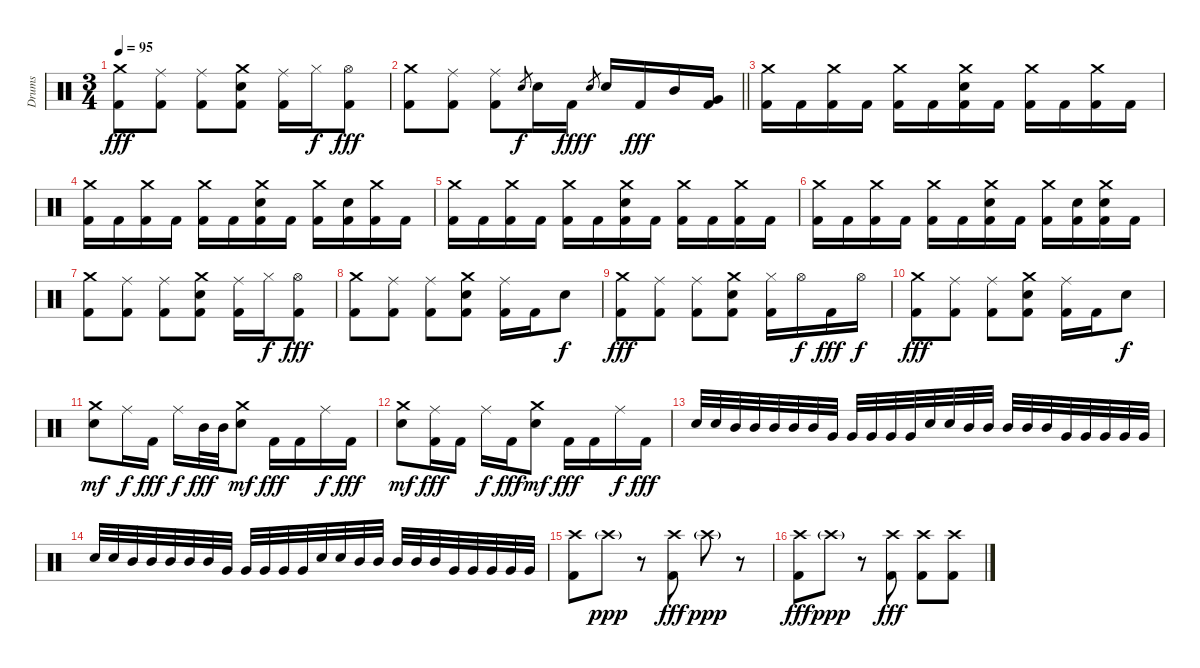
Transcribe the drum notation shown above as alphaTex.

\track ("Drums" "Drums") {instrument percussion}
\staff {score}
\articulation defaults
\ts (3 4)
\tempo 95
\clef neutral
\ks c
("Crash medium (hit)" "Kick (hit) 2").8{dy fff} ("Ride (middle)" "Kick (hit) 2").8 ("Ride (middle)" "Kick (hit) 2").8 ("Crash medium (hit)" "Snare (hit) 2" "Kick (hit) 2").8 ("Ride (middle)" "Kick (hit) 2").16 "Hi-Hat (closed)".16{dy f} ("Hi-Hat (open)" "Kick (hit) 2").8{dy fff} |
\barLineRight lightlight
("Crash medium (hit)" "Kick (hit) 2").8 ("Ride (middle)" "Kick (hit) 2").8 ("Ride (middle)" "Kick (hit) 2").8 "Snare (hit) 2".8{gr dy f} "Snare (hit) 2".16 "Kick (hit) 2".16{dy fff} "Snare (hit) 2".8{gr dy f} "Snare (hit) 2".16 "Kick (hit) 2".16{dy fff} "Mid Tom (hit)".16 ("Very Low Tom (hit)" "Kick (hit) 2").16 |
("Crash medium (hit)" "Kick (hit) 2").16 "Kick (hit) 2".16 ("Crash medium (hit)" "Kick (hit) 2").16 "Kick (hit) 2".16 ("Crash medium (hit)" "Kick (hit) 2").16 "Kick (hit) 2".16 ("Crash medium (hit)" "Snare (hit) 2" "Kick (hit) 2").16 "Kick (hit) 2".16 ("Crash medium (hit)" "Kick (hit) 2").16 "Kick (hit) 2".16 ("Crash medium (hit)" "Kick (hit) 2").16 "Kick (hit) 2".16 |
("Crash medium (hit)" "Kick (hit) 2").16 "Kick (hit) 2".16 ("Crash medium (hit)" "Kick (hit) 2").16 "Kick (hit) 2".16 ("Crash medium (hit)" "Kick (hit) 2").16 "Kick (hit) 2".16 ("Crash medium (hit)" "Snare (hit) 2" "Kick (hit) 2").16 "Kick (hit) 2".16 ("Crash medium (hit)" "Kick (hit) 2").16 ("Snare (hit) 2" "Kick (hit) 2").16 ("Crash medium (hit)" "Kick (hit) 2").16 "Kick (hit) 2".16 |
("Crash medium (hit)" "Kick (hit) 2").16 "Kick (hit) 2".16 ("Crash medium (hit)" "Kick (hit) 2").16 "Kick (hit) 2".16 ("Crash medium (hit)" "Kick (hit) 2").16 "Kick (hit) 2".16 ("Crash medium (hit)" "Snare (hit) 2" "Kick (hit) 2").16 "Kick (hit) 2".16 ("Crash medium (hit)" "Kick (hit) 2").16 "Kick (hit) 2".16 ("Crash medium (hit)" "Kick (hit) 2").16 "Kick (hit) 2".16 |
("Crash medium (hit)" "Kick (hit) 2").16 "Kick (hit) 2".16 ("Crash medium (hit)" "Kick (hit) 2").16 "Kick (hit) 2".16 ("Crash medium (hit)" "Kick (hit) 2").16 "Kick (hit) 2".16 ("Crash medium (hit)" "Snare (hit) 2" "Kick (hit) 2").16 "Kick (hit) 2".16 ("Crash medium (hit)" "Kick (hit) 2").16 ("Snare (hit) 2" "Kick (hit) 2").16 ("Crash medium (hit)" "Snare (hit) 2" "Kick (hit) 2").16 "Kick (hit) 2".16 |
("Crash medium (hit)" "Kick (hit) 2").8 ("Ride (middle)" "Kick (hit) 2").8 ("Ride (middle)" "Kick (hit) 2").8 ("Crash medium (hit)" "Snare (hit) 2" "Kick (hit) 2").8 ("Ride (middle)" "Kick (hit) 2").16 "Hi-Hat (closed)".16{dy f} ("Hi-Hat (open)" "Kick (hit) 2").8{dy fff} |
("Crash medium (hit)" "Kick (hit) 2").8 ("Ride (middle)" "Kick (hit) 2").8 ("Ride (middle)" "Kick (hit) 2").8 ("Crash medium (hit)" "Snare (hit) 2" "Kick (hit) 2").8 ("Ride (middle)" "Kick (hit) 2").16 "Kick (hit) 2".16 "Snare (hit) 2".8{dy f} |
("Crash medium (hit)" "Kick (hit) 2").8{dy fff} ("Ride (middle)" "Kick (hit) 2").8 ("Ride (middle)" "Kick (hit) 2").8 ("Crash medium (hit)" "Snare (hit) 2" "Kick (hit) 2").8 ("Hi-Hat (closed)" "Kick (hit) 2").16 "Hi-Hat (open)".16{dy f} "Kick (hit) 2".16{dy fff} "Hi-Hat (open)".16{dy f} |
("Crash medium (hit)" "Kick (hit) 2").8{dy fff} ("Ride (middle)" "Kick (hit) 2").8 ("Ride (middle)" "Kick (hit) 2").8 ("Crash medium (hit)" "Snare (hit) 2" "Kick (hit) 2").8 ("Ride (middle)" "Kick (hit) 2").16 "Kick (hit) 2".16 "Snare (hit) 2".8{dy f} |
("Crash medium (hit)" "Snare (hit) 2").8{dy mf} "Ride (middle)".16{dy f} "Kick (hit) 2".16{dy fff} "Ride (middle)".16{dy f} "Mid Tom (hit)".32{dy fff} "Mid Tom (hit)".32 ("Crash medium (hit)" "Snare (hit) 2").8{dy mf} "Kick (hit) 2".16{dy fff} "Kick (hit) 2".16 "Ride (middle)".16{dy f} "Kick (hit) 2".16{dy fff} |
("Crash medium (hit)" "Snare (hit) 2").8{dy mf} ("Ride (middle)" "Kick (hit) 2").16{dy fff} "Kick (hit) 2".16 "Ride (middle)".16{dy f} "Kick (hit) 2".16{dy fff} ("Crash medium (hit)" "Snare (hit) 2").8{dy mf} "Kick (hit) 2".16{dy fff} "Kick (hit) 2".16 "Ride (middle)".16{dy f} "Kick (hit) 2".16{dy fff} |
"Snare (hit) 2".32 "Snare (hit) 2".32 "Mid Tom (hit)".32 "Mid Tom (hit)".32 "Mid Tom (hit)".32 "Mid Tom (hit)".32 "Mid Tom (hit)".32 "Very Low Tom (hit)".32 "Very Low Tom (hit)".32 "Very Low Tom (hit)".32 "Very Low Tom (hit)".32 "Very Low Tom (hit)".32 "Snare (hit) 2".32 "Snare (hit) 2".32 "Mid Tom (hit)".32 "Mid Tom (hit)".32 "Mid Tom (hit)".32 "Mid Tom (hit)".32 "Mid Tom (hit)".32 "Very Low Tom (hit)".32 "Very Low Tom (hit)".32 "Very Low Tom (hit)".32 "Very Low Tom (hit)".32 "Very Low Tom (hit)".32 |
"Snare (hit) 2".32 "Snare (hit) 2".32 "Mid Tom (hit)".32 "Mid Tom (hit)".32 "Mid Tom (hit)".32 "Mid Tom (hit)".32 "Mid Tom (hit)".32 "Very Low Tom (hit)".32 "Very Low Tom (hit)".32 "Very Low Tom (hit)".32 "Very Low Tom (hit)".32 "Very Low Tom (hit)".32 "Snare (hit) 2".32 "Snare (hit) 2".32 "Mid Tom (hit)".32 "Mid Tom (hit)".32 "Mid Tom (hit)".32 "Mid Tom (hit)".32 "Mid Tom (hit)".32 "Very Low Tom (hit)".32 "Very Low Tom (hit)".32 "Very Low Tom (hit)".32 "Very Low Tom (hit)".32 "Very Low Tom (hit)".32 |
("Crash high (hit)" "Kick (hit) 2").8 "Crash high (hit)"{g}.8{dy ppp} r.8 ("Crash high (hit)" "Kick (hit) 2").8{dy fff} "Crash high (hit)"{g}.8{dy ppp} r.8 |
("Crash high (hit)" "Kick (hit) 2").8{dy fff} "Crash high (hit)"{g}.8{dy ppp} r.8 ("Crash high (hit)" "Kick (hit) 2").8{dy fff} ("Crash high (hit)" "Kick (hit) 2").8 ("Crash high (hit)" "Kick (hit) 2").8
